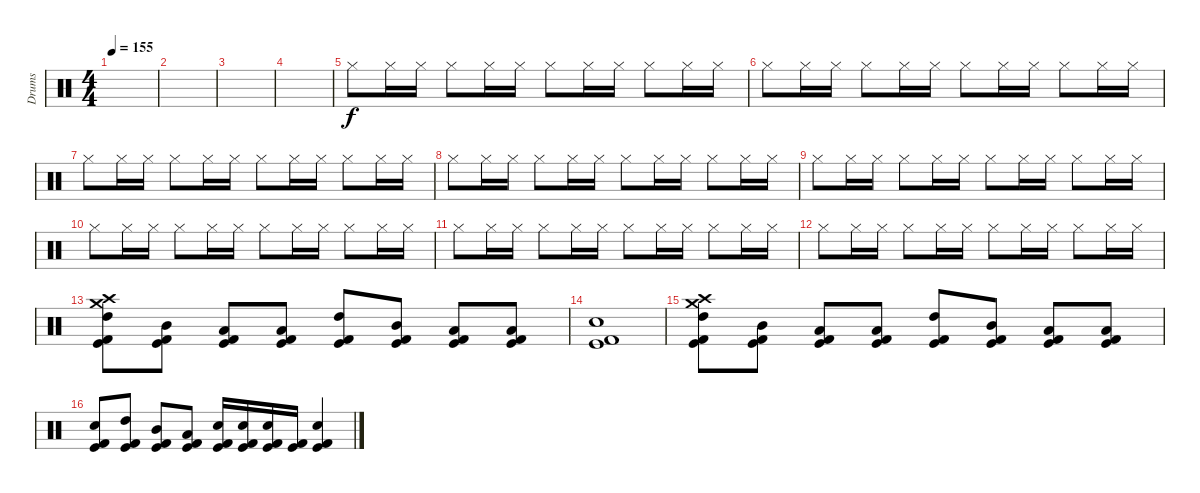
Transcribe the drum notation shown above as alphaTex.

\track ("Drums" "Drums") {instrument percussion}
\staff {score}
\articulation defaults
\ts (4 4)
\tempo 155
\clef neutral
\ks c
|
|
|
|
"Hi-Hat (closed)".8 "Hi-Hat (closed)".16 "Hi-Hat (closed)".16 "Hi-Hat (closed)".8 "Hi-Hat (closed)".16 "Hi-Hat (closed)".16 "Hi-Hat (closed)".8 "Hi-Hat (closed)".16 "Hi-Hat (closed)".16 "Hi-Hat (closed)".8 "Hi-Hat (closed)".16 "Hi-Hat (closed)".16 |
"Hi-Hat (closed)".8 "Hi-Hat (closed)".16 "Hi-Hat (closed)".16 "Hi-Hat (closed)".8 "Hi-Hat (closed)".16 "Hi-Hat (closed)".16 "Hi-Hat (closed)".8 "Hi-Hat (closed)".16 "Hi-Hat (closed)".16 "Hi-Hat (closed)".8 "Hi-Hat (closed)".16 "Hi-Hat (closed)".16 |
"Hi-Hat (closed)".8 "Hi-Hat (closed)".16 "Hi-Hat (closed)".16 "Hi-Hat (closed)".8 "Hi-Hat (closed)".16 "Hi-Hat (closed)".16 "Hi-Hat (closed)".8 "Hi-Hat (closed)".16 "Hi-Hat (closed)".16 "Hi-Hat (closed)".8 "Hi-Hat (closed)".16 "Hi-Hat (closed)".16 |
"Hi-Hat (closed)".8 "Hi-Hat (closed)".16 "Hi-Hat (closed)".16 "Hi-Hat (closed)".8 "Hi-Hat (closed)".16 "Hi-Hat (closed)".16 "Hi-Hat (closed)".8 "Hi-Hat (closed)".16 "Hi-Hat (closed)".16 "Hi-Hat (closed)".8 "Hi-Hat (closed)".16 "Hi-Hat (closed)".16 |
"Hi-Hat (closed)".8 "Hi-Hat (closed)".16 "Hi-Hat (closed)".16 "Hi-Hat (closed)".8 "Hi-Hat (closed)".16 "Hi-Hat (closed)".16 "Hi-Hat (closed)".8 "Hi-Hat (closed)".16 "Hi-Hat (closed)".16 "Hi-Hat (closed)".8 "Hi-Hat (closed)".16 "Hi-Hat (closed)".16 |
"Hi-Hat (closed)".8 "Hi-Hat (closed)".16 "Hi-Hat (closed)".16 "Hi-Hat (closed)".8 "Hi-Hat (closed)".16 "Hi-Hat (closed)".16 "Hi-Hat (closed)".8 "Hi-Hat (closed)".16 "Hi-Hat (closed)".16 "Hi-Hat (closed)".8 "Hi-Hat (closed)".16 "Hi-Hat (closed)".16 |
"Hi-Hat (closed)".8 "Hi-Hat (closed)".16 "Hi-Hat (closed)".16 "Hi-Hat (closed)".8 "Hi-Hat (closed)".16 "Hi-Hat (closed)".16 "Hi-Hat (closed)".8 "Hi-Hat (closed)".16 "Hi-Hat (closed)".16 "Hi-Hat (closed)".8 "Hi-Hat (closed)".16 "Hi-Hat (closed)".16 |
"Hi-Hat (closed)".8 "Hi-Hat (closed)".16 "Hi-Hat (closed)".16 "Hi-Hat (closed)".8 "Hi-Hat (closed)".16 "Hi-Hat (closed)".16 "Hi-Hat (closed)".8 "Hi-Hat (closed)".16 "Hi-Hat (closed)".16 "Hi-Hat (closed)".8 "Hi-Hat (closed)".16 "Hi-Hat (closed)".16 |
("Crash medium (hit)" "Crash high (hit)" "High Tom (hit)" "Kick (hit)" "Kick (hit) 2").8 ("Mid Tom (hit)" "Kick (hit)" "Kick (hit) 2").8 ("Low Tom (hit)" "Kick (hit)" "Kick (hit) 2").8 ("Low Floor Tom (hit)" "Kick (hit)" "Kick (hit) 2").8 ("High Tom (hit)" "Kick (hit)" "Kick (hit) 2").8 ("Mid Tom (hit)" "Kick (hit)" "Kick (hit) 2").8 ("Low Tom (hit)" "Kick (hit)" "Kick (hit) 2").8 ("Low Floor Tom (hit)" "Kick (hit)" "Kick (hit) 2").8 |
("Snare (hit) 2" "Kick (hit)" "Kick (hit) 2").1 |
("Crash medium (hit)" "Crash high (hit)" "High Tom (hit)" "Kick (hit)" "Kick (hit) 2").8 ("Mid Tom (hit)" "Kick (hit)" "Kick (hit) 2").8 ("Low Tom (hit)" "Kick (hit)" "Kick (hit) 2").8 ("Low Floor Tom (hit)" "Kick (hit)" "Kick (hit) 2").8 ("High Tom (hit)" "Kick (hit)" "Kick (hit) 2").8 ("Mid Tom (hit)" "Kick (hit)" "Kick (hit) 2").8 ("Low Tom (hit)" "Kick (hit)" "Kick (hit) 2").8 ("Low Floor Tom (hit)" "Kick (hit)" "Kick (hit) 2").8 |
("Snare (hit) 2" "Kick (hit)" "Kick (hit) 2").8 ("High Tom (hit)" "Kick (hit)" "Kick (hit) 2").8 ("Mid Tom (hit)" "Kick (hit)" "Kick (hit) 2").8 ("Low Tom (hit)" "Kick (hit)" "Kick (hit) 2").8 ("Snare (hit) 2" "Kick (hit)" "Kick (hit) 2").16 ("Snare (hit) 2" "Kick (hit)" "Kick (hit) 2").16 ("Snare (hit) 2" "Kick (hit)" "Kick (hit) 2").16 ("Kick (hit)" "Kick (hit) 2").16 ("Snare (hit) 2" "Kick (hit)" "Kick (hit) 2").4
